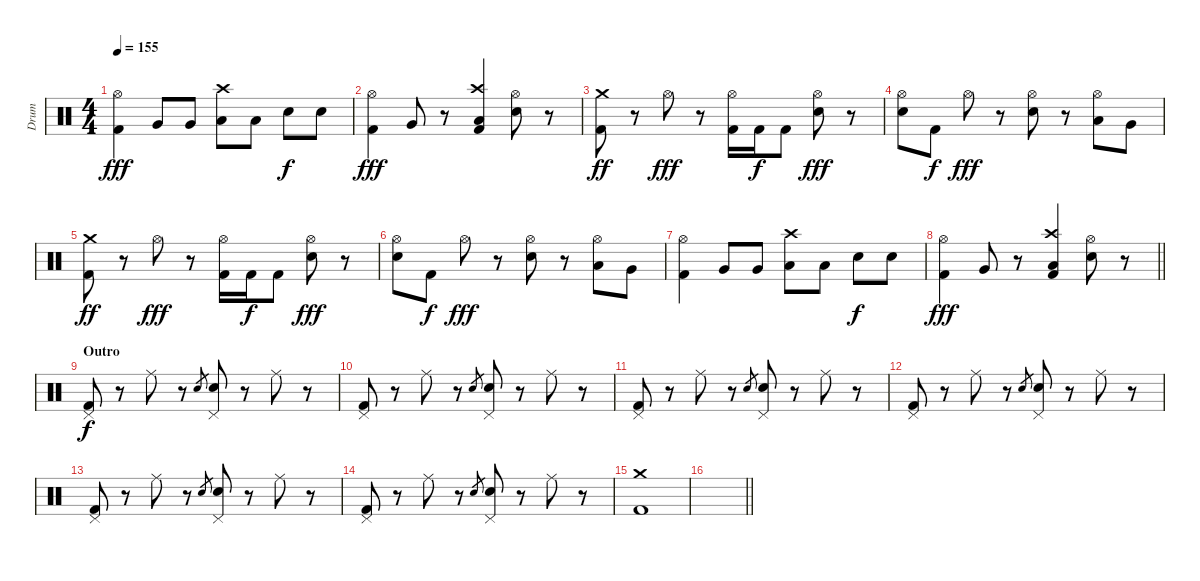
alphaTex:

\track ("Drum" "Drum") {instrument percussion}
\staff {score}
\articulation defaults
\ts (4 4)
\tempo 155
\clef neutral
\ks c
("Hi-Hat (open)" "Kick (hit) 2").4{dy fff} "Very Low Tom (hit)".8 "Very Low Tom (hit)".8 ("Crash high (hit)" "Low Tom (hit)").8 "Low Tom (hit)".8 "Snare (hit) 2".8{dy f} "Snare (hit) 2".8 |
("Hi-Hat (open)" "Kick (hit) 2").4{dy fff} "Very Low Tom (hit)".8 r.8 ("Crash high (hit)" "Low Tom (hit)" "Kick (hit) 2").4 ("Hi-Hat (open)" "Snare (hit) 2").8 r.8 |
("Crash medium (hit)" "Kick (hit) 2").8{dy ff} r.8 "Hi-Hat (open)".8{dy fff} r.8 ("Hi-Hat (open)" "Kick (hit) 2").16 "Kick (hit) 2".16{dy f} "Kick (hit) 2".8 ("Hi-Hat (open)" "Snare (hit) 2").8{dy fff} r.8 |
("Hi-Hat (open)" "Snare (hit) 2").8 "Kick (hit) 2".8{dy f} "Hi-Hat (open)".8{dy fff} r.8 ("Hi-Hat (open)" "Snare (hit) 2").8 r.8 ("Hi-Hat (open)" "Low Floor Tom (hit)").8 "Very Low Tom (hit)".8 |
("Crash medium (hit)" "Kick (hit) 2").8{dy ff} r.8 "Hi-Hat (open)".8{dy fff} r.8 ("Hi-Hat (open)" "Kick (hit) 2").16 "Kick (hit) 2".16{dy f} "Kick (hit) 2".8 ("Hi-Hat (open)" "Snare (hit) 2").8{dy fff} r.8 |
("Hi-Hat (open)" "Snare (hit) 2").8 "Kick (hit) 2".8{dy f} "Hi-Hat (open)".8{dy fff} r.8 ("Hi-Hat (open)" "Snare (hit) 2").8 r.8 ("Hi-Hat (open)" "Low Floor Tom (hit)").8 "Very Low Tom (hit)".8 |
("Hi-Hat (open)" "Kick (hit) 2").4 "Very Low Tom (hit)".8 "Very Low Tom (hit)".8 ("Crash high (hit)" "Low Tom (hit)").8 "Low Tom (hit)".8 "Snare (hit) 2".8{dy f} "Snare (hit) 2".8 |
\barLineRight lightlight
("Hi-Hat (open)" "Kick (hit) 2").4{dy fff} "Very Low Tom (hit)".8 r.8 ("Crash high (hit)" "Low Tom (hit)" "Kick (hit) 2").4 ("Hi-Hat (open)" "Snare (hit) 2").8 r.8 |
\section ("" "Outro")
("Pedal Hi-Hat (hit)" "Kick (hit) 2").8{dy f} r.8 "Ride (middle)".8 r.8 "Snare (hit) 2".8{gr} ("Pedal Hi-Hat (hit)" "Snare (hit) 2").8 r.8 "Ride (middle)".8 r.8 |
("Pedal Hi-Hat (hit)" "Kick (hit) 2").8 r.8 "Ride (middle)".8 r.8 "Snare (hit) 2".8{gr} ("Pedal Hi-Hat (hit)" "Snare (hit) 2").8 r.8 "Ride (middle)".8 r.8 |
("Pedal Hi-Hat (hit)" "Kick (hit) 2").8 r.8 "Ride (middle)".8 r.8 "Snare (hit) 2".8{gr} ("Pedal Hi-Hat (hit)" "Snare (hit) 2").8 r.8 "Ride (middle)".8 r.8 |
("Pedal Hi-Hat (hit)" "Kick (hit) 2").8 r.8 "Ride (middle)".8 r.8 "Snare (hit) 2".8{gr} ("Pedal Hi-Hat (hit)" "Snare (hit) 2").8 r.8 "Ride (middle)".8 r.8 |
("Pedal Hi-Hat (hit)" "Kick (hit) 2").8 r.8 "Ride (middle)".8 r.8 "Snare (hit) 2".8{gr} ("Pedal Hi-Hat (hit)" "Snare (hit) 2").8 r.8 "Ride (middle)".8 r.8 |
("Pedal Hi-Hat (hit)" "Kick (hit) 2").8 r.8 "Ride (middle)".8 r.8 "Snare (hit) 2".8{gr} ("Pedal Hi-Hat (hit)" "Snare (hit) 2").8 r.8 "Ride (middle)".8 r.8 |
("Crash medium (hit)" "Kick (hit) 2").1 |
\barLineRight lightlight
